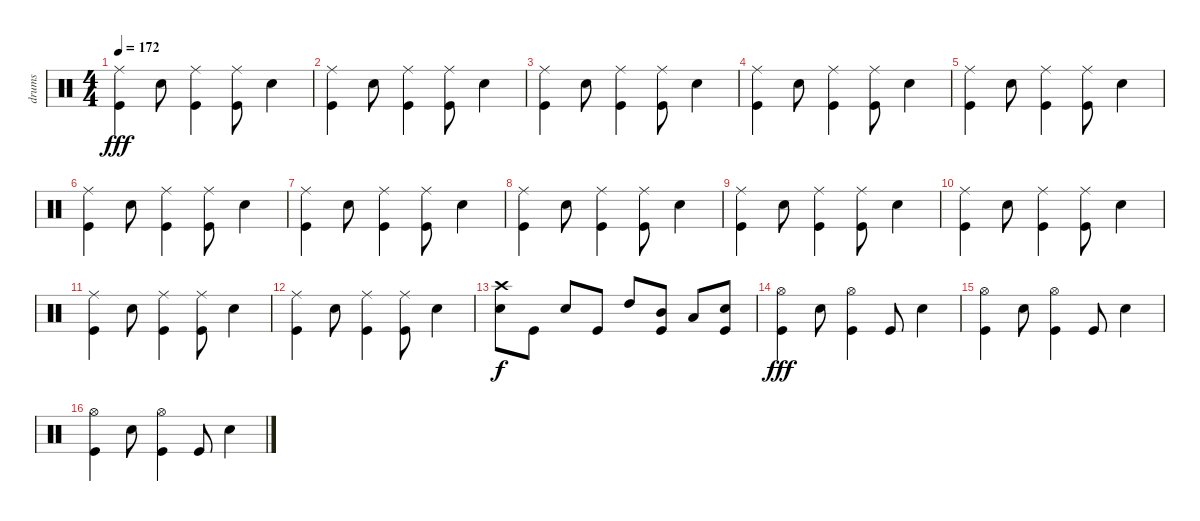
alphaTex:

\track ("drums" "drums") {instrument percussion}
\staff {score}
\articulation defaults
\ts (4 4)
\tempo 172
\clef neutral
\ks c
("Ride (middle)" "Kick (hit)").4{dy fff} "Electric Snare (hit)".8 ("Ride (middle)" "Kick (hit)").4 ("Ride (middle)" "Kick (hit)").8 "Electric Snare (hit)".4 |
("Ride (middle)" "Kick (hit)").4 "Electric Snare (hit)".8 ("Ride (middle)" "Kick (hit)").4 ("Ride (middle)" "Kick (hit)").8 "Electric Snare (hit)".4 |
("Ride (middle)" "Kick (hit)").4 "Electric Snare (hit)".8 ("Ride (middle)" "Kick (hit)").4 ("Ride (middle)" "Kick (hit)").8 "Electric Snare (hit)".4 |
("Ride (middle)" "Kick (hit)").4 "Electric Snare (hit)".8 ("Ride (middle)" "Kick (hit)").4 ("Ride (middle)" "Kick (hit)").8 "Electric Snare (hit)".4 |
("Ride (middle)" "Kick (hit)").4 "Electric Snare (hit)".8 ("Ride (middle)" "Kick (hit)").4 ("Ride (middle)" "Kick (hit)").8 "Electric Snare (hit)".4 |
("Ride (middle)" "Kick (hit)").4 "Electric Snare (hit)".8 ("Ride (middle)" "Kick (hit)").4 ("Ride (middle)" "Kick (hit)").8 "Electric Snare (hit)".4 |
("Ride (middle)" "Kick (hit)").4 "Electric Snare (hit)".8 ("Ride (middle)" "Kick (hit)").4 ("Ride (middle)" "Kick (hit)").8 "Electric Snare (hit)".4 |
("Ride (middle)" "Kick (hit)").4 "Electric Snare (hit)".8 ("Ride (middle)" "Kick (hit)").4 ("Ride (middle)" "Kick (hit)").8 "Electric Snare (hit)".4 |
("Ride (middle)" "Kick (hit)").4 "Electric Snare (hit)".8 ("Ride (middle)" "Kick (hit)").4 ("Ride (middle)" "Kick (hit)").8 "Electric Snare (hit)".4 |
("Ride (middle)" "Kick (hit)").4 "Electric Snare (hit)".8 ("Ride (middle)" "Kick (hit)").4 ("Ride (middle)" "Kick (hit)").8 "Electric Snare (hit)".4 |
("Ride (middle)" "Kick (hit)").4 "Electric Snare (hit)".8 ("Ride (middle)" "Kick (hit)").4 ("Ride (middle)" "Kick (hit)").8 "Electric Snare (hit)".4 |
("Ride (middle)" "Kick (hit)").4 "Electric Snare (hit)".8 ("Ride (middle)" "Kick (hit)").4 ("Ride (middle)" "Kick (hit)").8 "Electric Snare (hit)".4 |
("Crash high (hit)" "Electric Snare (hit)").8{dy f} "Kick (hit)".8 "Electric Snare (hit)".8 "Kick (hit)".8 "High Tom (hit)".8 ("Mid Tom (hit)" "Kick (hit)").8 "Low Tom (hit)".8 ("Electric Snare (hit)" "Kick (hit)").8 |
("Hi-Hat (open)" "Kick (hit)").4{dy fff} "Electric Snare (hit)".8 ("Hi-Hat (open)" "Kick (hit)").4 "Kick (hit)".8 "Electric Snare (hit)".4 |
("Hi-Hat (open)" "Kick (hit)").4 "Electric Snare (hit)".8 ("Hi-Hat (open)" "Kick (hit)").4 "Kick (hit)".8 "Electric Snare (hit)".4 |
("Hi-Hat (open)" "Kick (hit)").4 "Electric Snare (hit)".8 ("Hi-Hat (open)" "Kick (hit)").4 "Kick (hit)".8 "Electric Snare (hit)".4
